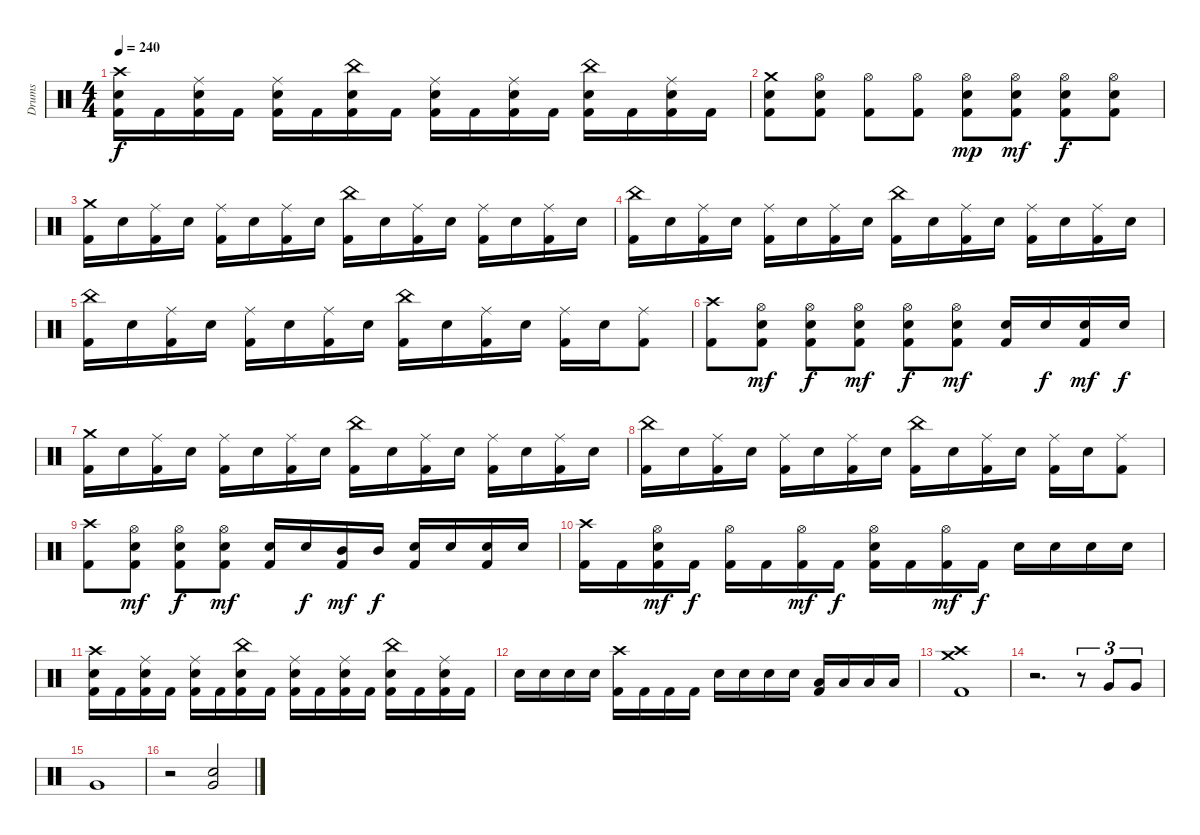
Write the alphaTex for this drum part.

\track ("Drums" "Drums") {instrument percussion}
\staff {score}
\articulation defaults
\ts (4 4)
\tempo 240
\clef neutral
\ks c
("Crash high (hit)" "Electric Snare (hit)" "Kick (hit) 2").16{dy f} "Kick (hit) 2".16 ("Ride (middle)" "Electric Snare (hit)" "Kick (hit) 2").16 "Kick (hit) 2".16 ("Ride (middle)" "Electric Snare (hit)" "Kick (hit) 2").16 "Kick (hit) 2".16 ("China (hit)" "Electric Snare (hit)" "Kick (hit) 2").16 "Kick (hit) 2".16 ("Ride (middle)" "Electric Snare (hit)" "Kick (hit) 2").16 "Kick (hit) 2".16 ("Ride (middle)" "Electric Snare (hit)" "Kick (hit) 2").16 "Kick (hit) 2".16 ("China (hit)" "Electric Snare (hit)" "Kick (hit) 2").16 "Kick (hit) 2".16 ("Ride (middle)" "Electric Snare (hit)" "Kick (hit) 2").16 "Kick (hit) 2".16 |
("Crash medium (hit)" "Electric Snare (hit)" "Kick (hit) 2").8 ("Hi-Hat (open)" "Electric Snare (hit)" "Kick (hit) 2").8 ("Hi-Hat (open)" "Kick (hit) 2").8 ("Hi-Hat (open)" "Kick (hit) 2").8 ("Hi-Hat (open)" "Electric Snare (hit)" "Kick (hit) 2").8{dy mp} ("Hi-Hat (open)" "Electric Snare (hit)" "Kick (hit) 2").8{dy mf} ("Hi-Hat (open)" "Electric Snare (hit)" "Kick (hit) 2").8{dy f} ("Hi-Hat (open)" "Electric Snare (hit)" "Kick (hit) 2").8 |
("Crash medium (hit)" "Kick (hit) 2").16 "Electric Snare (hit)".16 ("Ride (middle)" "Kick (hit) 2").16 "Electric Snare (hit)".16 ("Ride (middle)" "Kick (hit) 2").16 "Electric Snare (hit)".16 ("Ride (middle)" "Kick (hit) 2").16 "Electric Snare (hit)".16 ("China (hit)" "Kick (hit) 2").16 "Electric Snare (hit)".16 ("Ride (middle)" "Kick (hit) 2").16 "Electric Snare (hit)".16 ("Ride (middle)" "Kick (hit) 2").16 "Electric Snare (hit)".16 ("Ride (middle)" "Kick (hit) 2").16 "Electric Snare (hit)".16 |
("China (hit)" "Kick (hit) 2").16 "Electric Snare (hit)".16 ("Ride (middle)" "Kick (hit) 2").16 "Electric Snare (hit)".16 ("Ride (middle)" "Kick (hit) 2").16 "Electric Snare (hit)".16 ("Ride (middle)" "Kick (hit) 2").16 "Electric Snare (hit)".16 ("China (hit)" "Kick (hit) 2").16 "Electric Snare (hit)".16 ("Ride (middle)" "Kick (hit) 2").16 "Electric Snare (hit)".16 ("Ride (middle)" "Kick (hit) 2").16 "Electric Snare (hit)".16 ("Ride (middle)" "Kick (hit) 2").16 "Electric Snare (hit)".16 |
("China (hit)" "Kick (hit) 2").16 "Electric Snare (hit)".16 ("Ride (middle)" "Kick (hit) 2").16 "Electric Snare (hit)".16 ("Ride (middle)" "Kick (hit) 2").16 "Electric Snare (hit)".16 ("Ride (middle)" "Kick (hit) 2").16 "Electric Snare (hit)".16 ("China (hit)" "Kick (hit) 2").16 "Electric Snare (hit)".16 ("Ride (middle)" "Kick (hit) 2").16 "Electric Snare (hit)".16 ("Ride (middle)" "Kick (hit) 2").16 "Electric Snare (hit)".16 ("Ride (middle)" "Kick (hit) 2").8 |
("Crash high (hit)" "Kick (hit) 2").8 ("Hi-Hat (open)" "Electric Snare (hit)" "Kick (hit) 2").8{dy mf} ("Hi-Hat (open)" "Electric Snare (hit)" "Kick (hit) 2").8{dy f} ("Hi-Hat (open)" "Electric Snare (hit)" "Kick (hit) 2").8{dy mf} ("Hi-Hat (open)" "Electric Snare (hit)" "Kick (hit) 2").8{dy f} ("Hi-Hat (open)" "Electric Snare (hit)" "Kick (hit) 2").8{dy mf} ("Electric Snare (hit)" "Kick (hit) 2").16 "Electric Snare (hit)".16{dy f} ("Electric Snare (hit)" "Kick (hit) 2").16{dy mf} "Electric Snare (hit)".16{dy f} |
("Crash medium (hit)" "Kick (hit) 2").16 "Electric Snare (hit)".16 ("Ride (middle)" "Kick (hit) 2").16 "Electric Snare (hit)".16 ("Ride (middle)" "Kick (hit) 2").16 "Electric Snare (hit)".16 ("Ride (middle)" "Kick (hit) 2").16 "Electric Snare (hit)".16 ("China (hit)" "Kick (hit) 2").16 "Electric Snare (hit)".16 ("Ride (middle)" "Kick (hit) 2").16 "Electric Snare (hit)".16 ("Ride (middle)" "Kick (hit) 2").16 "Electric Snare (hit)".16 ("Ride (middle)" "Kick (hit) 2").16 "Electric Snare (hit)".16 |
("China (hit)" "Kick (hit) 2").16 "Electric Snare (hit)".16 ("Ride (middle)" "Kick (hit) 2").16 "Electric Snare (hit)".16 ("Ride (middle)" "Kick (hit) 2").16 "Electric Snare (hit)".16 ("Ride (middle)" "Kick (hit) 2").16 "Electric Snare (hit)".16 ("China (hit)" "Kick (hit) 2").16 "Electric Snare (hit)".16 ("Ride (middle)" "Kick (hit) 2").16 "Electric Snare (hit)".16 ("Ride (middle)" "Kick (hit) 2").16 "Electric Snare (hit)".16 ("Ride (middle)" "Kick (hit) 2").8 |
("Crash high (hit)" "Kick (hit) 2").8 ("Hi-Hat (open)" "Electric Snare (hit)" "Kick (hit) 2").8{dy mf} ("Hi-Hat (open)" "Electric Snare (hit)" "Kick (hit) 2").8{dy f} ("Hi-Hat (open)" "Electric Snare (hit)" "Kick (hit) 2").8{dy mf} ("Electric Snare (hit)" "Kick (hit) 2").16 "Electric Snare (hit)".16{dy f} ("Mid Tom (hit)" "Kick (hit) 2").16{dy mf} "Mid Tom (hit)".16{dy f} ("Electric Snare (hit)" "Kick (hit) 2").16 "Electric Snare (hit)".16 ("Electric Snare (hit)" "Kick (hit) 2").16 "Electric Snare (hit)".16 |
("Crash high (hit)" "Kick (hit) 2").16 "Kick (hit) 2".16 ("Hi-Hat (open)" "Electric Snare (hit)" "Kick (hit) 2").16{dy mf} "Kick (hit) 2".16{dy f} ("Hi-Hat (open)" "Kick (hit) 2").16 "Kick (hit) 2".16 ("Hi-Hat (open)" "Kick (hit) 2").16{dy mf} "Kick (hit) 2".16{dy f} ("Hi-Hat (open)" "Electric Snare (hit)" "Kick (hit) 2").16 "Kick (hit) 2".16 ("Hi-Hat (open)" "Kick (hit) 2").16{dy mf} "Kick (hit) 2".16{dy f} "Electric Snare (hit)".16 "Electric Snare (hit)".16 "Electric Snare (hit)".16 "Electric Snare (hit)".16 |
("Crash high (hit)" "Electric Snare (hit)" "Kick (hit) 2").16 "Kick (hit) 2".16 ("Ride (middle)" "Electric Snare (hit)" "Kick (hit) 2").16 "Kick (hit) 2".16 ("Ride (middle)" "Electric Snare (hit)" "Kick (hit) 2").16 "Kick (hit) 2".16 ("China (hit)" "Electric Snare (hit)" "Kick (hit) 2").16 "Kick (hit) 2".16 ("Ride (middle)" "Electric Snare (hit)" "Kick (hit) 2").16 "Kick (hit) 2".16 ("Ride (middle)" "Electric Snare (hit)" "Kick (hit) 2").16 "Kick (hit) 2".16 ("China (hit)" "Electric Snare (hit)" "Kick (hit) 2").16 "Kick (hit) 2".16 ("Ride (middle)" "Electric Snare (hit)" "Kick (hit) 2").16 "Kick (hit) 2".16 |
"Electric Snare (hit)".16 "Electric Snare (hit)".16 "Electric Snare (hit)".16 "Electric Snare (hit)".16 ("Crash high (hit)" "Kick (hit) 2").16 "Kick (hit) 2".16 "Kick (hit) 2".16 "Kick (hit) 2".16 "Electric Snare (hit)".16 "Electric Snare (hit)".16 "Electric Snare (hit)".16 "Electric Snare (hit)".16 ("Low Tom (hit)" "Kick (hit) 2").16 "Low Tom (hit)".16 "Low Tom (hit)".16 "Low Tom (hit)".16 |
("Crash medium (hit)" "Crash high (hit)" "Kick (hit) 2").1 |
r.2{d} r.8{tu (3 2)} "Very Low Tom (hit)".8{tu (3 2)} "Very Low Tom (hit)".8{tu (3 2)} |
"Very Low Tom (hit)".1 |
r.2 ("Electric Snare (hit)" "Very Low Tom (hit)").2{bu 480}
